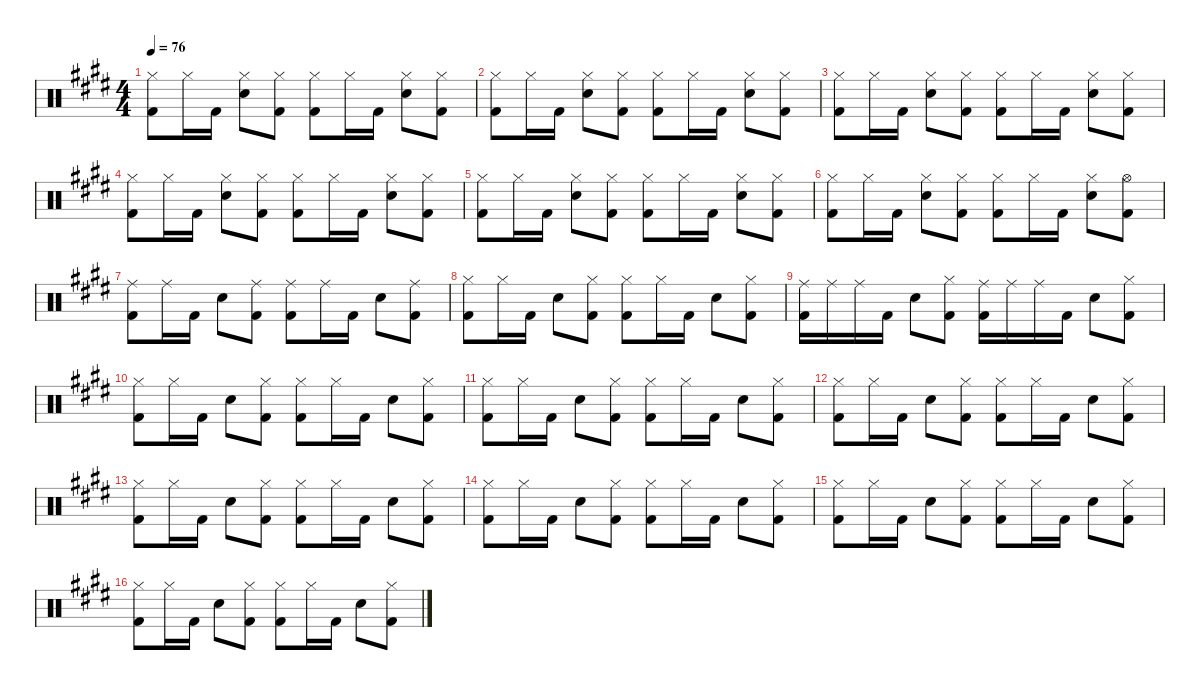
\defaultSystemsLayout 4
\hideDynamics
\bracketExtendMode nobrackets
\singleTrackTrackNamePolicy hidden
\multiTrackTrackNamePolicy hidden
\firstSystemTrackNameMode fullname
\otherSystemsTrackNameOrientation horizontal
\track ("Drums" "drm.") {instrument percussion}
\staff {score}
\articulation defaults
\ts (4 4)
\tempo 76
\clef neutral
\ks e
("Hi-Hat (closed)"{acc forcenatural} "Kick (hit) 2"{acc forcenatural}).8{dy f beam Down} "Hi-Hat (closed)"{acc forcenatural}.16{beam Down} "Kick (hit) 2"{acc forcenatural}.16{beam Down} ("Hi-Hat (closed)"{acc forcenatural} "Snare (hit) 2"{acc forcenatural}).8{dy mf beam Down} ("Hi-Hat (closed)"{acc forcenatural} "Kick (hit) 2"{acc forcenatural}).8{dy f beam Down} ("Hi-Hat (closed)"{acc forcenatural} "Kick (hit) 2"{acc forcenatural}).8{beam Down} "Hi-Hat (closed)"{acc forcenatural}.16{beam Down} "Kick (hit) 2"{acc forcenatural}.16{beam Down} ("Hi-Hat (closed)"{acc forcenatural} "Snare (hit) 2"{acc forcenatural}).8{dy mf beam Down} ("Hi-Hat (closed)"{acc forcenatural} "Kick (hit) 2"{acc forcenatural}).8{dy f beam Down} |
("Hi-Hat (closed)"{acc forcenatural} "Kick (hit) 2"{acc forcenatural}).8{beam Down} "Hi-Hat (closed)"{acc forcenatural}.16{beam Down} "Kick (hit) 2"{acc forcenatural}.16{beam Down} ("Hi-Hat (closed)"{acc forcenatural} "Snare (hit) 2"{acc forcenatural}).8{dy mf beam Down} ("Hi-Hat (closed)"{acc forcenatural} "Kick (hit) 2"{acc forcenatural}).8{dy f beam Down} ("Hi-Hat (closed)"{acc forcenatural} "Kick (hit) 2"{acc forcenatural}).8{beam Down} "Hi-Hat (closed)"{acc forcenatural}.16{beam Down} "Kick (hit) 2"{acc forcenatural}.16{beam Down} ("Hi-Hat (closed)"{acc forcenatural} "Snare (hit) 2"{acc forcenatural}).8{dy mf beam Down} ("Hi-Hat (closed)"{acc forcenatural} "Kick (hit) 2"{acc forcenatural}).8{dy f beam Down} |
("Hi-Hat (closed)"{acc forcenatural} "Kick (hit) 2"{acc forcenatural}).8{beam Down} "Hi-Hat (closed)"{acc forcenatural}.16{beam Down} "Kick (hit) 2"{acc forcenatural}.16{beam Down} ("Hi-Hat (closed)"{acc forcenatural} "Snare (hit) 2"{acc forcenatural}).8{dy mf beam Down} ("Hi-Hat (closed)"{acc forcenatural} "Kick (hit) 2"{acc forcenatural}).8{dy f beam Down} ("Hi-Hat (closed)"{acc forcenatural} "Kick (hit) 2"{acc forcenatural}).8{beam Down} "Hi-Hat (closed)"{acc forcenatural}.16{beam Down} "Kick (hit) 2"{acc forcenatural}.16{beam Down} ("Hi-Hat (closed)"{acc forcenatural} "Snare (hit) 2"{acc forcenatural}).8{dy mf beam Down} ("Hi-Hat (closed)"{acc forcenatural} "Kick (hit) 2"{acc forcenatural}).8{dy f beam Down} |
("Hi-Hat (closed)"{acc forcenatural} "Kick (hit) 2"{acc forcenatural}).8{beam Down} "Hi-Hat (closed)"{acc forcenatural}.16{beam Down} "Kick (hit) 2"{acc forcenatural}.16{beam Down} ("Hi-Hat (closed)"{acc forcenatural} "Snare (hit) 2"{acc forcenatural}).8{dy mf beam Down} ("Hi-Hat (closed)"{acc forcenatural} "Kick (hit) 2"{acc forcenatural}).8{dy f beam Down} ("Hi-Hat (closed)"{acc forcenatural} "Kick (hit) 2"{acc forcenatural}).8{beam Down} "Hi-Hat (closed)"{acc forcenatural}.16{beam Down} "Kick (hit) 2"{acc forcenatural}.16{beam Down} ("Hi-Hat (closed)"{acc forcenatural} "Snare (hit) 2"{acc forcenatural}).8{dy mf beam Down} ("Hi-Hat (closed)"{acc forcenatural} "Kick (hit) 2"{acc forcenatural}).8{dy f beam Down} |
("Hi-Hat (closed)"{acc forcenatural} "Kick (hit) 2"{acc forcenatural}).8{beam Down} "Hi-Hat (closed)"{acc forcenatural}.16{beam Down} "Kick (hit) 2"{acc forcenatural}.16{beam Down} ("Hi-Hat (closed)"{acc forcenatural} "Snare (hit) 2"{acc forcenatural}).8{dy mf beam Down} ("Hi-Hat (closed)"{acc forcenatural} "Kick (hit) 2"{acc forcenatural}).8{dy f beam Down} ("Hi-Hat (closed)"{acc forcenatural} "Kick (hit) 2"{acc forcenatural}).8{beam Down} "Hi-Hat (closed)"{acc forcenatural}.16{beam Down} "Kick (hit) 2"{acc forcenatural}.16{beam Down} ("Hi-Hat (closed)"{acc forcenatural} "Snare (hit) 2"{acc forcenatural}).8{dy mf beam Down} ("Hi-Hat (closed)"{acc forcenatural} "Kick (hit) 2"{acc forcenatural}).8{dy f beam Down} |
("Hi-Hat (closed)"{acc forcenatural} "Kick (hit) 2"{acc forcenatural}).8{beam Down} "Hi-Hat (closed)"{acc forcenatural}.16{beam Down} "Kick (hit) 2"{acc forcenatural}.16{beam Down} ("Hi-Hat (closed)"{acc forcenatural} "Snare (hit) 2"{acc forcenatural}).8{dy mf beam Down} ("Hi-Hat (closed)"{acc forcenatural} "Kick (hit) 2"{acc forcenatural}).8{dy f beam Down} ("Hi-Hat (closed)"{acc forcenatural} "Kick (hit) 2"{acc forcenatural}).8{beam Down} "Hi-Hat (closed)"{acc forcenatural}.16{beam Down} "Kick (hit) 2"{acc forcenatural}.16{beam Down} ("Hi-Hat (closed)"{acc forcenatural} "Snare (hit) 2"{acc forcenatural}).8{dy mf beam Down} ("Hi-Hat (open)"{acc forcenatural} "Kick (hit) 2"{acc forcenatural}).8{dy f beam Down} |
("Ride (middle)"{acc forcenatural} "Kick (hit) 2"{acc forcenatural}).8{beam Down} "Ride (middle)"{acc forcenatural}.16{beam Down} "Kick (hit) 2"{acc forcenatural}.16{beam Down} "Snare (hit) 2"{acc forcenatural}.8{beam Down} ("Ride (middle)"{acc forcenatural} "Kick (hit) 2"{acc forcenatural}).8{beam Down} ("Ride (middle)"{acc forcenatural} "Kick (hit) 2"{acc forcenatural}).8{beam Down} "Ride (middle)"{acc forcenatural}.16{beam Down} "Kick (hit) 2"{acc forcenatural}.16{beam Down} "Snare (hit) 2"{acc forcenatural}.8{beam Down} ("Ride (middle)"{acc forcenatural} "Kick (hit) 2"{acc forcenatural}).8{beam Down} |
("Hi-Hat (closed)"{acc forcenatural} "Kick (hit) 2"{acc forcenatural}).8{beam Down} "Hi-Hat (closed)"{acc forcenatural}.16{beam Down} "Kick (hit) 2"{acc forcenatural}.16{beam Down} "Snare (hit) 2"{acc forcenatural}.8{beam Down} ("Hi-Hat (closed)"{acc forcenatural} "Kick (hit) 2"{acc forcenatural}).8{beam Down} ("Hi-Hat (closed)"{acc forcenatural} "Kick (hit) 2"{acc forcenatural}).8{beam Down} "Hi-Hat (closed)"{acc forcenatural}.16{beam Down} "Kick (hit) 2"{acc forcenatural}.16{beam Down} "Snare (hit) 2"{acc forcenatural}.8{beam Down} ("Hi-Hat (closed)"{acc forcenatural} "Kick (hit) 2"{acc forcenatural}).8{beam Down} |
("Ride (middle)"{acc forcenatural} "Kick (hit) 2"{acc forcenatural}).16{beam Down} "Ride (middle)"{acc forcenatural}.16{beam Down} "Ride (middle)"{acc forcenatural}.16{beam Down} "Kick (hit) 2"{acc forcenatural}.16{beam Down} "Snare (hit) 2"{acc forcenatural}.8{beam Down} ("Hi-Hat (closed)"{acc forcenatural} "Kick (hit) 2"{acc forcenatural}).8{beam Down} ("Ride (middle)"{acc forcenatural} "Kick (hit) 2"{acc forcenatural}).16{beam Down} "Ride (middle)"{acc forcenatural}.16{beam Down} "Ride (middle)"{acc forcenatural}.16{beam Down} "Kick (hit) 2"{acc forcenatural}.16{beam Down} "Snare (hit) 2"{acc forcenatural}.8{beam Down} ("Hi-Hat (closed)"{acc forcenatural} "Kick (hit) 2"{acc forcenatural}).8{beam Down} |
("Hi-Hat (closed)"{acc forcenatural} "Kick (hit) 2"{acc forcenatural}).8{beam Down} "Hi-Hat (closed)"{acc forcenatural}.16{beam Down} "Kick (hit) 2"{acc forcenatural}.16{beam Down} "Snare (hit) 2"{acc forcenatural}.8{beam Down} ("Hi-Hat (closed)"{acc forcenatural} "Kick (hit) 2"{acc forcenatural}).8{beam Down} ("Hi-Hat (closed)"{acc forcenatural} "Kick (hit) 2"{acc forcenatural}).8{beam Down} "Hi-Hat (closed)"{acc forcenatural}.16{beam Down} "Kick (hit) 2"{acc forcenatural}.16{beam Down} "Snare (hit) 2"{acc forcenatural}.8{beam Down} ("Hi-Hat (closed)"{acc forcenatural} "Kick (hit) 2"{acc forcenatural}).8{beam Down} |
("Hi-Hat (closed)"{acc forcenatural} "Kick (hit) 2"{acc forcenatural}).8{beam Down} "Hi-Hat (closed)"{acc forcenatural}.16{beam Down} "Kick (hit) 2"{acc forcenatural}.16{beam Down} "Snare (hit) 2"{acc forcenatural}.8{beam Down} ("Hi-Hat (closed)"{acc forcenatural} "Kick (hit) 2"{acc forcenatural}).8{beam Down} ("Hi-Hat (closed)"{acc forcenatural} "Kick (hit) 2"{acc forcenatural}).8{beam Down} "Hi-Hat (closed)"{acc forcenatural}.16{beam Down} "Kick (hit) 2"{acc forcenatural}.16{beam Down} "Snare (hit) 2"{acc forcenatural}.8{beam Down} ("Hi-Hat (closed)"{acc forcenatural} "Kick (hit) 2"{acc forcenatural}).8{beam Down} |
("Hi-Hat (closed)"{acc forcenatural} "Kick (hit) 2"{acc forcenatural}).8{beam Down} "Hi-Hat (closed)"{acc forcenatural}.16{beam Down} "Kick (hit) 2"{acc forcenatural}.16{beam Down} "Snare (hit) 2"{acc forcenatural}.8{beam Down} ("Hi-Hat (closed)"{acc forcenatural} "Kick (hit) 2"{acc forcenatural}).8{beam Down} ("Hi-Hat (closed)"{acc forcenatural} "Kick (hit) 2"{acc forcenatural}).8{beam Down} "Hi-Hat (closed)"{acc forcenatural}.16{beam Down} "Kick (hit) 2"{acc forcenatural}.16{beam Down} "Snare (hit) 2"{acc forcenatural}.8{beam Down} ("Hi-Hat (closed)"{acc forcenatural} "Kick (hit) 2"{acc forcenatural}).8{beam Down} |
("Hi-Hat (closed)"{acc forcenatural} "Kick (hit) 2"{acc forcenatural}).8{beam Down} "Hi-Hat (closed)"{acc forcenatural}.16{beam Down} "Kick (hit) 2"{acc forcenatural}.16{beam Down} "Snare (hit) 2"{acc forcenatural}.8{beam Down} ("Hi-Hat (closed)"{acc forcenatural} "Kick (hit) 2"{acc forcenatural}).8{beam Down} ("Hi-Hat (closed)"{acc forcenatural} "Kick (hit) 2"{acc forcenatural}).8{beam Down} "Hi-Hat (closed)"{acc forcenatural}.16{beam Down} "Kick (hit) 2"{acc forcenatural}.16{beam Down} "Snare (hit) 2"{acc forcenatural}.8{beam Down} ("Hi-Hat (closed)"{acc forcenatural} "Kick (hit) 2"{acc forcenatural}).8{beam Down} |
("Hi-Hat (closed)"{acc forcenatural} "Kick (hit) 2"{acc forcenatural}).8{beam Down} "Hi-Hat (closed)"{acc forcenatural}.16{beam Down} "Kick (hit) 2"{acc forcenatural}.16{beam Down} "Snare (hit) 2"{acc forcenatural}.8{beam Down} ("Hi-Hat (closed)"{acc forcenatural} "Kick (hit) 2"{acc forcenatural}).8{beam Down} ("Hi-Hat (closed)"{acc forcenatural} "Kick (hit) 2"{acc forcenatural}).8{beam Down} "Hi-Hat (closed)"{acc forcenatural}.16{beam Down} "Kick (hit) 2"{acc forcenatural}.16{beam Down} "Snare (hit) 2"{acc forcenatural}.8{beam Down} ("Hi-Hat (closed)"{acc forcenatural} "Kick (hit) 2"{acc forcenatural}).8{beam Down} |
("Hi-Hat (closed)"{acc forcenatural} "Kick (hit) 2"{acc forcenatural}).8{beam Down} "Hi-Hat (closed)"{acc forcenatural}.16{beam Down} "Kick (hit) 2"{acc forcenatural}.16{beam Down} "Snare (hit) 2"{acc forcenatural}.8{beam Down} ("Hi-Hat (closed)"{acc forcenatural} "Kick (hit) 2"{acc forcenatural}).8{beam Down} ("Hi-Hat (closed)"{acc forcenatural} "Kick (hit) 2"{acc forcenatural}).8{beam Down} "Hi-Hat (closed)"{acc forcenatural}.16{beam Down} "Kick (hit) 2"{acc forcenatural}.16{beam Down} "Snare (hit) 2"{acc forcenatural}.8{beam Down} ("Hi-Hat (closed)"{acc forcenatural} "Kick (hit) 2"{acc forcenatural}).8{beam Down} |
("Hi-Hat (closed)"{acc forcenatural} "Kick (hit) 2"{acc forcenatural}).8{beam Down} "Hi-Hat (closed)"{acc forcenatural}.16{beam Down} "Kick (hit) 2"{acc forcenatural}.16{beam Down} "Snare (hit) 2"{acc forcenatural}.8{beam Down} ("Hi-Hat (closed)"{acc forcenatural} "Kick (hit) 2"{acc forcenatural}).8{beam Down} ("Hi-Hat (closed)"{acc forcenatural} "Kick (hit) 2"{acc forcenatural}).8{beam Down} "Hi-Hat (closed)"{acc forcenatural}.16{beam Down} "Kick (hit) 2"{acc forcenatural}.16{beam Down} "Snare (hit) 2"{acc forcenatural}.8{beam Down} ("Hi-Hat (closed)"{acc forcenatural} "Kick (hit) 2"{acc forcenatural}).8{beam Down}
